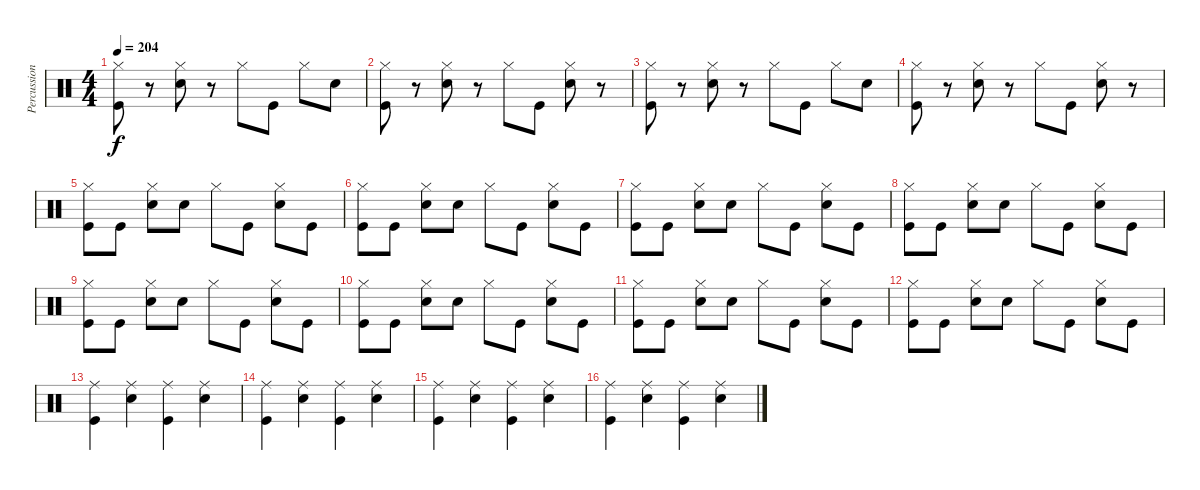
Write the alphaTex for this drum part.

\track ("Percussion" "Percussion") {instrument percussion}
\staff {score}
\articulation defaults
\ts (4 4)
\tempo 204
\clef neutral
\ks c
("Hi-Hat (closed)" "Kick (hit)").8{dy f} r.8 ("Hi-Hat (closed)" "Snare (hit) 2").8 r.8 "Hi-Hat (closed)".8 "Kick (hit)".8 "Hi-Hat (closed)".8 "Snare (hit) 2".8 |
("Hi-Hat (closed)" "Kick (hit)").8 r.8 ("Hi-Hat (closed)" "Snare (hit) 2").8 r.8 "Hi-Hat (closed)".8 "Kick (hit)".8 ("Hi-Hat (closed)" "Snare (hit) 2").8 r.8 |
("Hi-Hat (closed)" "Kick (hit)").8 r.8 ("Hi-Hat (closed)" "Snare (hit) 2").8 r.8 "Hi-Hat (closed)".8 "Kick (hit)".8 "Hi-Hat (closed)".8 "Snare (hit) 2".8 |
("Hi-Hat (closed)" "Kick (hit)").8 r.8 ("Hi-Hat (closed)" "Snare (hit) 2").8 r.8 "Hi-Hat (closed)".8 "Kick (hit)".8 ("Hi-Hat (closed)" "Snare (hit) 2").8 r.8 |
("Hi-Hat (closed)" "Kick (hit)").8 "Kick (hit)".8 ("Hi-Hat (closed)" "Snare (hit) 2").8 "Snare (hit) 2".8 "Hi-Hat (closed)".8 "Kick (hit)".8 ("Hi-Hat (closed)" "Snare (hit) 2").8 "Kick (hit)".8 |
("Hi-Hat (closed)" "Kick (hit)").8 "Kick (hit)".8 ("Hi-Hat (closed)" "Snare (hit) 2").8 "Snare (hit) 2".8 "Hi-Hat (closed)".8 "Kick (hit)".8 ("Hi-Hat (closed)" "Snare (hit) 2").8 "Kick (hit)".8 |
("Hi-Hat (closed)" "Kick (hit)").8 "Kick (hit)".8 ("Hi-Hat (closed)" "Snare (hit) 2").8 "Snare (hit) 2".8 "Hi-Hat (closed)".8 "Kick (hit)".8 ("Hi-Hat (closed)" "Snare (hit) 2").8 "Kick (hit)".8 |
("Hi-Hat (closed)" "Kick (hit)").8 "Kick (hit)".8 ("Hi-Hat (closed)" "Snare (hit) 2").8 "Snare (hit) 2".8 "Hi-Hat (closed)".8 "Kick (hit)".8 ("Hi-Hat (closed)" "Snare (hit) 2").8 "Kick (hit)".8 |
("Hi-Hat (closed)" "Kick (hit)").8 "Kick (hit)".8 ("Hi-Hat (closed)" "Snare (hit) 2").8 "Snare (hit) 2".8 "Hi-Hat (closed)".8 "Kick (hit)".8 ("Hi-Hat (closed)" "Snare (hit) 2").8 "Kick (hit)".8 |
("Hi-Hat (closed)" "Kick (hit)").8 "Kick (hit)".8 ("Hi-Hat (closed)" "Snare (hit) 2").8 "Snare (hit) 2".8 "Hi-Hat (closed)".8 "Kick (hit)".8 ("Hi-Hat (closed)" "Snare (hit) 2").8 "Kick (hit)".8 |
("Hi-Hat (closed)" "Kick (hit)").8 "Kick (hit)".8 ("Hi-Hat (closed)" "Snare (hit) 2").8 "Snare (hit) 2".8 "Hi-Hat (closed)".8 "Kick (hit)".8 ("Hi-Hat (closed)" "Snare (hit) 2").8 "Kick (hit)".8 |
("Hi-Hat (closed)" "Kick (hit)").8 "Kick (hit)".8 ("Hi-Hat (closed)" "Snare (hit) 2").8 "Snare (hit) 2".8 "Hi-Hat (closed)".8 "Kick (hit)".8 ("Hi-Hat (closed)" "Snare (hit) 2").8 "Kick (hit)".8 |
("Ride (middle)" "Kick (hit)").4 ("Ride (middle)" "Snare (hit) 2").4 ("Ride (middle)" "Kick (hit)").4 ("Ride (middle)" "Snare (hit) 2").4 |
("Ride (middle)" "Kick (hit)").4 ("Ride (middle)" "Snare (hit) 2").4 ("Ride (middle)" "Kick (hit)").4 ("Ride (middle)" "Snare (hit) 2").4 |
("Ride (middle)" "Kick (hit)").4 ("Ride (middle)" "Snare (hit) 2").4 ("Ride (middle)" "Kick (hit)").4 ("Ride (middle)" "Snare (hit) 2").4 |
("Ride (middle)" "Kick (hit)").4 ("Ride (middle)" "Snare (hit) 2").4 ("Ride (middle)" "Kick (hit)").4 ("Ride (middle)" "Snare (hit) 2").4
